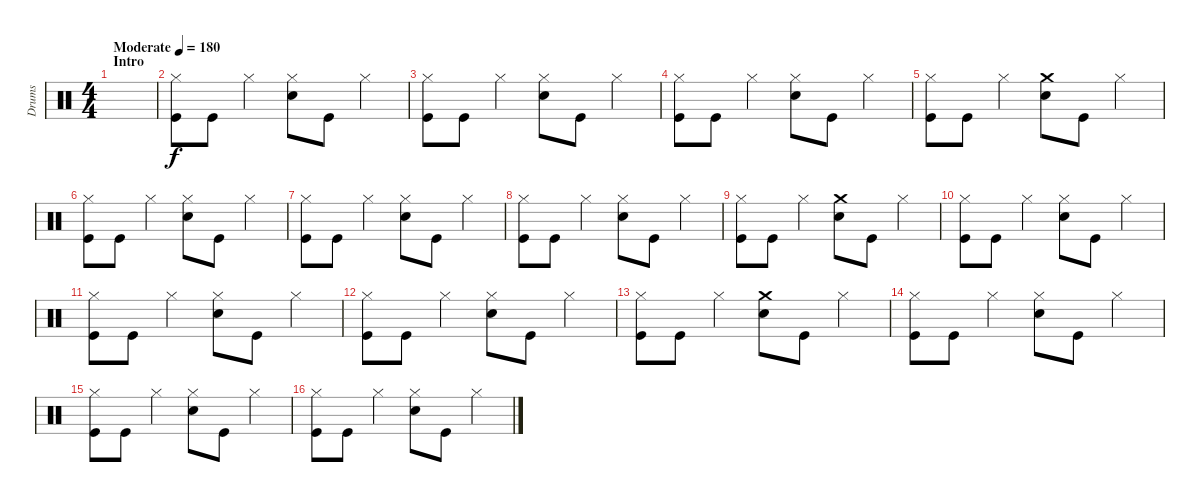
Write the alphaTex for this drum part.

\track ("Drums" "Drums") {instrument percussion}
\staff {score}
\articulation defaults
\ts (4 4)
\section ("" "Intro")
\tempo (180 "Moderate")
\clef neutral
\ks c
|
("Hi-Hat (closed)" "Kick (hit)").8 "Kick (hit)".8 "Hi-Hat (closed)".4 ("Hi-Hat (closed)" "Snare (hit) 2").8 "Kick (hit)".8 "Hi-Hat (closed)".4 |
("Hi-Hat (closed)" "Kick (hit)").8 "Kick (hit)".8 "Hi-Hat (closed)".4 ("Hi-Hat (closed)" "Snare (hit) 2").8 "Kick (hit)".8 "Hi-Hat (closed)".4 |
("Hi-Hat (closed)" "Kick (hit)").8 "Kick (hit)".8 "Hi-Hat (closed)".4 ("Hi-Hat (closed)" "Snare (hit) 2").8 "Kick (hit)".8 "Hi-Hat (closed)".4 |
("Hi-Hat (closed)" "Kick (hit)").8 "Kick (hit)".8 "Hi-Hat (closed)".4 ("Crash medium (hit)" "Snare (hit) 2").8 "Kick (hit)".8 "Hi-Hat (closed)".4 |
("Hi-Hat (closed)" "Kick (hit)").8 "Kick (hit)".8 "Hi-Hat (closed)".4 ("Hi-Hat (closed)" "Snare (hit) 2").8 "Kick (hit)".8 "Hi-Hat (closed)".4 |
("Hi-Hat (closed)" "Kick (hit)").8 "Kick (hit)".8 "Hi-Hat (closed)".4 ("Hi-Hat (closed)" "Snare (hit) 2").8 "Kick (hit)".8 "Hi-Hat (closed)".4 |
("Hi-Hat (closed)" "Kick (hit)").8 "Kick (hit)".8 "Hi-Hat (closed)".4 ("Hi-Hat (closed)" "Snare (hit) 2").8 "Kick (hit)".8 "Hi-Hat (closed)".4 |
("Hi-Hat (closed)" "Kick (hit)").8 "Kick (hit)".8 "Hi-Hat (closed)".4 ("Crash medium (hit)" "Snare (hit) 2").8 "Kick (hit)".8 "Hi-Hat (closed)".4 |
("Hi-Hat (closed)" "Kick (hit)").8 "Kick (hit)".8 "Hi-Hat (closed)".4 ("Hi-Hat (closed)" "Snare (hit) 2").8 "Kick (hit)".8 "Hi-Hat (closed)".4 |
("Hi-Hat (closed)" "Kick (hit)").8 "Kick (hit)".8 "Hi-Hat (closed)".4 ("Hi-Hat (closed)" "Snare (hit) 2").8 "Kick (hit)".8 "Hi-Hat (closed)".4 |
("Hi-Hat (closed)" "Kick (hit)").8 "Kick (hit)".8 "Hi-Hat (closed)".4 ("Hi-Hat (closed)" "Snare (hit) 2").8 "Kick (hit)".8 "Hi-Hat (closed)".4 |
("Hi-Hat (closed)" "Kick (hit)").8 "Kick (hit)".8 "Hi-Hat (closed)".4 ("Crash medium (hit)" "Snare (hit) 2").8 "Kick (hit)".8 "Hi-Hat (closed)".4 |
("Hi-Hat (closed)" "Kick (hit)").8 "Kick (hit)".8 "Hi-Hat (closed)".4 ("Hi-Hat (closed)" "Snare (hit) 2").8 "Kick (hit)".8 "Hi-Hat (closed)".4 |
("Hi-Hat (closed)" "Kick (hit)").8 "Kick (hit)".8 "Hi-Hat (closed)".4 ("Hi-Hat (closed)" "Snare (hit) 2").8 "Kick (hit)".8 "Hi-Hat (closed)".4 |
("Hi-Hat (closed)" "Kick (hit)").8 "Kick (hit)".8 "Hi-Hat (closed)".4 ("Hi-Hat (closed)" "Snare (hit) 2").8 "Kick (hit)".8 "Hi-Hat (closed)".4
